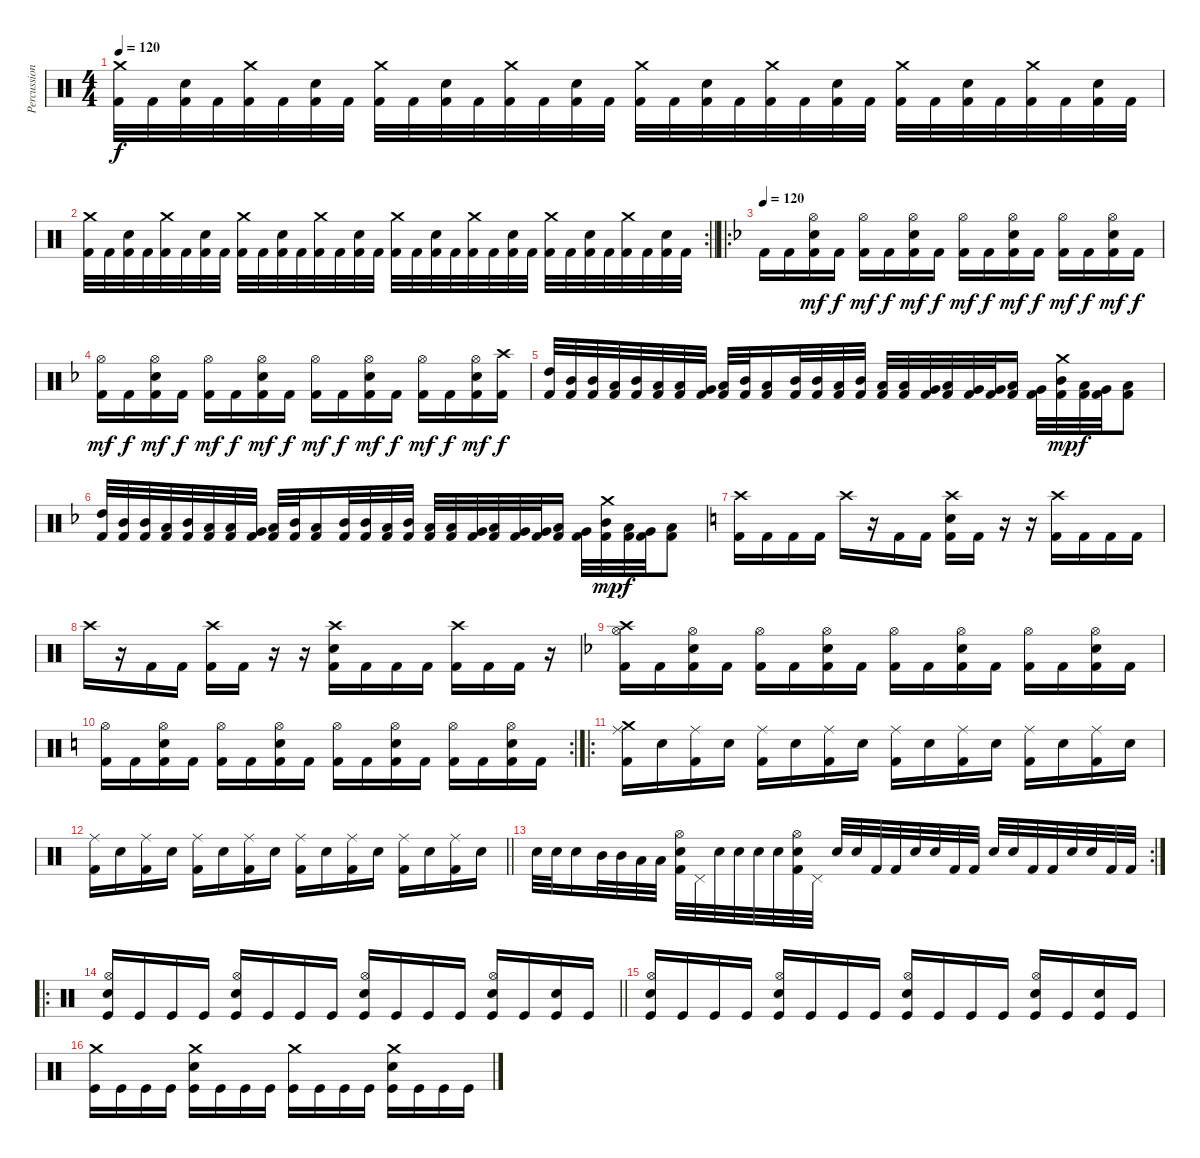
\track ("Percussions" "Percussion") {instrument percussion}
\staff {score}
\articulation defaults
\ts (4 4)
\tempo 120
\clef neutral
\ks c
("Crash medium (hit)" "Kick (hit) 2").32{dy f} "Kick (hit) 2".32 ("Electric Snare (hit)" "Kick (hit) 2").32 "Kick (hit) 2".32 ("Crash medium (hit)" "Kick (hit) 2").32 "Kick (hit) 2".32 ("Electric Snare (hit)" "Kick (hit) 2").32 "Kick (hit) 2".32 ("Crash medium (hit)" "Kick (hit) 2").32 "Kick (hit) 2".32 ("Electric Snare (hit)" "Kick (hit) 2").32 "Kick (hit) 2".32 ("Crash medium (hit)" "Kick (hit) 2").32 "Kick (hit) 2".32 ("Electric Snare (hit)" "Kick (hit) 2").32 "Kick (hit) 2".32 ("Crash medium (hit)" "Kick (hit) 2").32 "Kick (hit) 2".32 ("Electric Snare (hit)" "Kick (hit) 2").32 "Kick (hit) 2".32 ("Crash medium (hit)" "Kick (hit) 2").32 "Kick (hit) 2".32 ("Electric Snare (hit)" "Kick (hit) 2").32 "Kick (hit) 2".32 ("Crash medium (hit)" "Kick (hit) 2").32 "Kick (hit) 2".32 ("Electric Snare (hit)" "Kick (hit) 2").32 "Kick (hit) 2".32 ("Crash medium (hit)" "Kick (hit) 2").32 "Kick (hit) 2".32 ("Electric Snare (hit)" "Kick (hit) 2").32 "Kick (hit) 2".32 |
\rc 2
\barLineRight lightlight
("Crash medium (hit)" "Kick (hit) 2").32 "Kick (hit) 2".32 ("Electric Snare (hit)" "Kick (hit) 2").32 "Kick (hit) 2".32 ("Crash medium (hit)" "Kick (hit) 2").32 "Kick (hit) 2".32 ("Electric Snare (hit)" "Kick (hit) 2").32 "Kick (hit) 2".32 ("Crash medium (hit)" "Kick (hit) 2").32 "Kick (hit) 2".32 ("Electric Snare (hit)" "Kick (hit) 2").32 "Kick (hit) 2".32 ("Crash medium (hit)" "Kick (hit) 2").32 "Kick (hit) 2".32 ("Electric Snare (hit)" "Kick (hit) 2").32 "Kick (hit) 2".32 ("Crash medium (hit)" "Kick (hit) 2").32 "Kick (hit) 2".32 ("Electric Snare (hit)" "Kick (hit) 2").32 "Kick (hit) 2".32 ("Crash medium (hit)" "Kick (hit) 2").32 "Kick (hit) 2".32 ("Electric Snare (hit)" "Kick (hit) 2").32 "Kick (hit) 2".32 ("Crash medium (hit)" "Kick (hit) 2").32 "Kick (hit) 2".32 ("Electric Snare (hit)" "Kick (hit) 2").32 "Kick (hit) 2".32 ("Crash medium (hit)" "Kick (hit) 2").32 "Kick (hit) 2".32 ("Electric Snare (hit)" "Kick (hit) 2").32 "Kick (hit) 2".32 |
\ro
\tempo 120
\ks f "Kick (hit) 2".16 "Kick (hit) 2".16
("Kick (hit) 2" "Snare (hit) 2" "Hi-Hat (open)").16{dy mf} "Kick (hit) 2".16{dy f} ("Kick (hit) 2" "Hi-Hat (open)").16{dy mf} "Kick (hit) 2".16{dy f} ("Kick (hit) 2" "Snare (hit) 2" "Hi-Hat (open)").16{dy mf} "Kick (hit) 2".16{dy f} ("Kick (hit) 2" "Hi-Hat (open)").16{dy mf} "Kick (hit) 2".16{dy f} ("Kick (hit) 2" "Snare (hit) 2" "Hi-Hat (open)").16{dy mf} "Kick (hit) 2".16{dy f} ("Kick (hit) 2" "Hi-Hat (open)").16{dy mf} "Kick (hit) 2".16{dy f} ("Kick (hit) 2" "Snare (hit) 2" "Hi-Hat (open)").16{dy mf} "Kick (hit) 2".16{dy f} |
("Kick (hit) 2" "Hi-Hat (open)").16{dy mf} "Kick (hit) 2".16{dy f} ("Kick (hit) 2" "Snare (hit) 2" "Hi-Hat (open)").16{dy mf} "Kick (hit) 2".16{dy f} ("Kick (hit) 2" "Hi-Hat (open)").16{dy mf} "Kick (hit) 2".16{dy f} ("Kick (hit) 2" "Snare (hit) 2" "Hi-Hat (open)").16{dy mf} "Kick (hit) 2".16{dy f} ("Kick (hit) 2" "Hi-Hat (open)").16{dy mf} "Kick (hit) 2".16{dy f} ("Kick (hit) 2" "Snare (hit) 2" "Hi-Hat (open)").16{dy mf} "Kick (hit) 2".16{dy f} ("Kick (hit) 2" "Hi-Hat (open)").16{dy mf} "Kick (hit) 2".16{dy f} ("Kick (hit) 2" "Snare (hit) 2" "Hi-Hat (open)").16{dy mf} ("Kick (hit) 2" "Crash high (hit)").16{dy f} |
("Kick (hit) 2" "High Tom (hit)").32 ("Kick (hit) 2" "Mid Tom (hit)").32 ("Kick (hit) 2" "Mid Tom (hit)").32 ("Kick (hit) 2" "Low Tom (hit)").32 ("Kick (hit) 2" "Mid Tom (hit)").32 ("Kick (hit) 2" "Low Tom (hit)").32 ("Kick (hit) 2" "Low Tom (hit)").32 ("Kick (hit) 2" "Very Low Tom (hit)").32 ("Kick (hit) 2" "Low Tom (hit)").32 ("Kick (hit) 2" "Mid Tom (hit)").32 ("Kick (hit) 2" "Low Tom (hit)").16 ("Kick (hit) 2" "Mid Tom (hit)").32 ("Kick (hit) 2" "Mid Tom (hit)").32 ("Kick (hit) 2" "Low Tom (hit)").32 ("Kick (hit) 2" "Mid Tom (hit)").32 ("Kick (hit) 2" "Low Tom (hit)").32 ("Kick (hit) 2" "Low Tom (hit)").32 ("Kick (hit) 2" "Very Low Tom (hit)").32 ("Kick (hit) 2" "Low Tom (hit)").32 ("Kick (hit) 2" "Very Low Tom (hit)").32 ("Kick (hit) 2" "Very Low Tom (hit)").32 ("Kick (hit) 2" "Low Floor Tom (hit)").16 ("Kick (hit) 2" "Very Low Tom (hit)").32 ("Kick (hit) 2" "Mid Tom (hit)" "Crash medium (hit)").32{dy mp} ("Kick (hit) 2" "Low Tom (hit)").32{dy f} ("Kick (hit) 2" "Very Low Tom (hit)").32 ("Kick (hit) 2" "Low Floor Tom (hit)").8 |
("Kick (hit) 2" "High Tom (hit)").32 ("Kick (hit) 2" "Mid Tom (hit)").32 ("Kick (hit) 2" "Mid Tom (hit)").32 ("Kick (hit) 2" "Low Tom (hit)").32 ("Kick (hit) 2" "Mid Tom (hit)").32 ("Kick (hit) 2" "Low Tom (hit)").32 ("Kick (hit) 2" "Low Tom (hit)").32 ("Kick (hit) 2" "Very Low Tom (hit)").32 ("Kick (hit) 2" "Low Tom (hit)").32 ("Kick (hit) 2" "Mid Tom (hit)").32 ("Kick (hit) 2" "Low Tom (hit)").16 ("Kick (hit) 2" "Mid Tom (hit)").32 ("Kick (hit) 2" "Mid Tom (hit)").32 ("Kick (hit) 2" "Low Tom (hit)").32 ("Kick (hit) 2" "Mid Tom (hit)").32 ("Kick (hit) 2" "Low Tom (hit)").32 ("Kick (hit) 2" "Low Tom (hit)").32 ("Kick (hit) 2" "Very Low Tom (hit)").32 ("Kick (hit) 2" "Low Tom (hit)").32 ("Kick (hit) 2" "Very Low Tom (hit)").32 ("Kick (hit) 2" "Very Low Tom (hit)").32 ("Kick (hit) 2" "Low Floor Tom (hit)").16 ("Kick (hit) 2" "Very Low Tom (hit)").32 ("Kick (hit) 2" "Mid Tom (hit)" "Crash medium (hit)").32{dy mp} ("Kick (hit) 2" "Low Tom (hit)").32{dy f} ("Kick (hit) 2" "Very Low Tom (hit)").32 ("Kick (hit) 2" "Low Floor Tom (hit)").8 |
\ks c
("Crash high (hit)" "Kick (hit) 2").16 "Kick (hit) 2".16 "Kick (hit) 2".16 "Kick (hit) 2".16 "Crash high (hit)".16 r.16 "Kick (hit) 2".16 "Kick (hit) 2".16 ("Crash high (hit)" "Electric Snare (hit)" "Kick (hit) 2").16 "Kick (hit) 2".16 r.16 r.16 ("Crash high (hit)" "Kick (hit) 2").16 "Kick (hit) 2".16 "Kick (hit) 2".16 "Kick (hit) 2".16 |
"Crash high (hit)".16 r.16 "Kick (hit) 2".16 "Kick (hit) 2".16 ("Crash high (hit)" "Kick (hit) 2").16 "Kick (hit) 2".16 r.16 r.16 ("Crash high (hit)" "Electric Snare (hit)" "Kick (hit) 2").16 "Kick (hit) 2".16 "Kick (hit) 2".16 "Kick (hit) 2".16 ("Crash high (hit)" "Kick (hit) 2").16 "Kick (hit) 2".16 "Kick (hit) 2".16 r.16 |
\ks f
("Crash high (hit)" "Hi-Hat (open)" "Kick (hit) 2").16 "Kick (hit) 2".16 ("Hi-Hat (open)" "Electric Snare (hit)" "Kick (hit) 2").16 "Kick (hit) 2".16 ("Hi-Hat (open)" "Kick (hit) 2").16 "Kick (hit) 2".16 ("Hi-Hat (open)" "Electric Snare (hit)" "Kick (hit) 2").16 "Kick (hit) 2".16 ("Hi-Hat (open)" "Kick (hit) 2").16 "Kick (hit) 2".16 ("Hi-Hat (open)" "Electric Snare (hit)" "Kick (hit) 2").16 "Kick (hit) 2".16 ("Hi-Hat (open)" "Kick (hit) 2").16 "Kick (hit) 2".16 ("Hi-Hat (open)" "Electric Snare (hit)" "Kick (hit) 2").16 "Kick (hit) 2".16 |
\rc 2
\ks c
("Hi-Hat (open)" "Kick (hit) 2").16 "Kick (hit) 2".16 ("Hi-Hat (open)" "Electric Snare (hit)" "Kick (hit) 2").16 "Kick (hit) 2".16 ("Hi-Hat (open)" "Kick (hit) 2").16 "Kick (hit) 2".16 ("Hi-Hat (open)" "Electric Snare (hit)" "Kick (hit) 2").16 "Kick (hit) 2".16 ("Hi-Hat (open)" "Kick (hit) 2").16 "Kick (hit) 2".16 ("Hi-Hat (open)" "Electric Snare (hit)" "Kick (hit) 2").16 "Kick (hit) 2".16 ("Hi-Hat (open)" "Kick (hit) 2").16 "Kick (hit) 2".16 ("Hi-Hat (open)" "Electric Snare (hit)" "Kick (hit) 2").16 "Kick (hit) 2".16 |
\ro
("Kick (hit) 2" "Ride (middle)" "Crash medium (hit)").16 "Electric Snare (hit)".16 ("Kick (hit) 2" "Ride (middle)").16 "Electric Snare (hit)".16 ("Kick (hit) 2" "Ride (middle)").16 "Electric Snare (hit)".16 ("Kick (hit) 2" "Ride (middle)").16 "Electric Snare (hit)".16 ("Kick (hit) 2" "Ride (middle)").16 "Electric Snare (hit)".16 ("Kick (hit) 2" "Ride (middle)").16 "Electric Snare (hit)".16 ("Kick (hit) 2" "Ride (middle)").16 "Electric Snare (hit)".16 ("Kick (hit) 2" "Ride (middle)").16 "Electric Snare (hit)".16 |
\barLineRight lightlight
("Kick (hit) 2" "Ride (middle)").16 "Electric Snare (hit)".16 ("Kick (hit) 2" "Ride (middle)").16 "Electric Snare (hit)".16 ("Kick (hit) 2" "Ride (middle)").16 "Electric Snare (hit)".16 ("Kick (hit) 2" "Ride (middle)").16 "Electric Snare (hit)".16 ("Kick (hit) 2" "Ride (middle)").16 "Electric Snare (hit)".16 ("Kick (hit) 2" "Ride (middle)").16 "Electric Snare (hit)".16 ("Kick (hit) 2" "Ride (middle)").16 "Electric Snare (hit)".16 ("Kick (hit) 2" "Ride (middle)").16 "Electric Snare (hit)".16 |
\rc 2 "Electric Snare (hit)".32 "Electric Snare (hit)".32 "Electric Snare (hit)".16 "Mid Tom (hit)".32 "Mid Tom (hit)".32 "Low Tom (hit)".32 "Low Tom (hit)".32
("Hi-Hat (open)" "Electric Snare (hit)" "Kick (hit) 2").32 "Pedal Hi-Hat (hit)".32 "Electric Snare (hit)".32 "Electric Snare (hit)".32 "Electric Snare (hit)".32 "Electric Snare (hit)".32 ("Hi-Hat (open)" "Electric Snare (hit)" "Kick (hit) 2").32 "Pedal Hi-Hat (hit)".32 "Electric Snare (hit)".32 "Electric Snare (hit)".32 "Kick (hit) 2".32 "Kick (hit) 2".32 "Electric Snare (hit)".32 "Electric Snare (hit)".32 "Kick (hit) 2".32 "Kick (hit) 2".32 "Electric Snare (hit)".32 "Electric Snare (hit)".32 "Kick (hit) 2".32 "Kick (hit) 2".32 "Electric Snare (hit)".32 "Electric Snare (hit)".32 "Kick (hit) 2".32 "Kick (hit) 2".32 |
\ro
\barLineRight lightlight
("Hi-Hat (open)" "Electric Snare (hit)" "Kick (hit)").16 "Kick (hit)".16 "Kick (hit)".16 "Kick (hit)".16 ("Hi-Hat (open)" "Electric Snare (hit)" "Kick (hit)").16 "Kick (hit)".16 "Kick (hit)".16 "Kick (hit)".16 ("Hi-Hat (open)" "Electric Snare (hit)" "Kick (hit)").16 "Kick (hit)".16 "Kick (hit)".16 "Kick (hit)".16 ("Hi-Hat (open)" "Electric Snare (hit)" "Kick (hit)").16 "Kick (hit)".16 ("Electric Snare (hit)" "Kick (hit)").16 "Kick (hit)".16 |
("Hi-Hat (open)" "Electric Snare (hit)" "Kick (hit)").16 "Kick (hit)".16 "Kick (hit)".16 "Kick (hit)".16 ("Hi-Hat (open)" "Electric Snare (hit)" "Kick (hit)").16 "Kick (hit)".16 "Kick (hit)".16 "Kick (hit)".16 ("Hi-Hat (open)" "Electric Snare (hit)" "Kick (hit)").16 "Kick (hit)".16 "Kick (hit)".16 "Kick (hit)".16 ("Hi-Hat (open)" "Electric Snare (hit)" "Kick (hit)").16 "Kick (hit)".16 ("Electric Snare (hit)" "Kick (hit)").16 "Kick (hit)".16 |
("Crash medium (hit)" "Kick (hit)").16 "Kick (hit)".16 "Kick (hit)".16 "Kick (hit)".16 ("Electric Snare (hit)" "Crash medium (hit)" "Kick (hit)").16 "Kick (hit)".16 "Kick (hit)".16 "Kick (hit)".16 ("Crash medium (hit)" "Kick (hit)").16 "Kick (hit)".16 "Kick (hit)".16 "Kick (hit)".16 ("Electric Snare (hit)" "Crash medium (hit)" "Kick (hit)").16 "Kick (hit)".16 "Kick (hit)".16 "Kick (hit)".16
